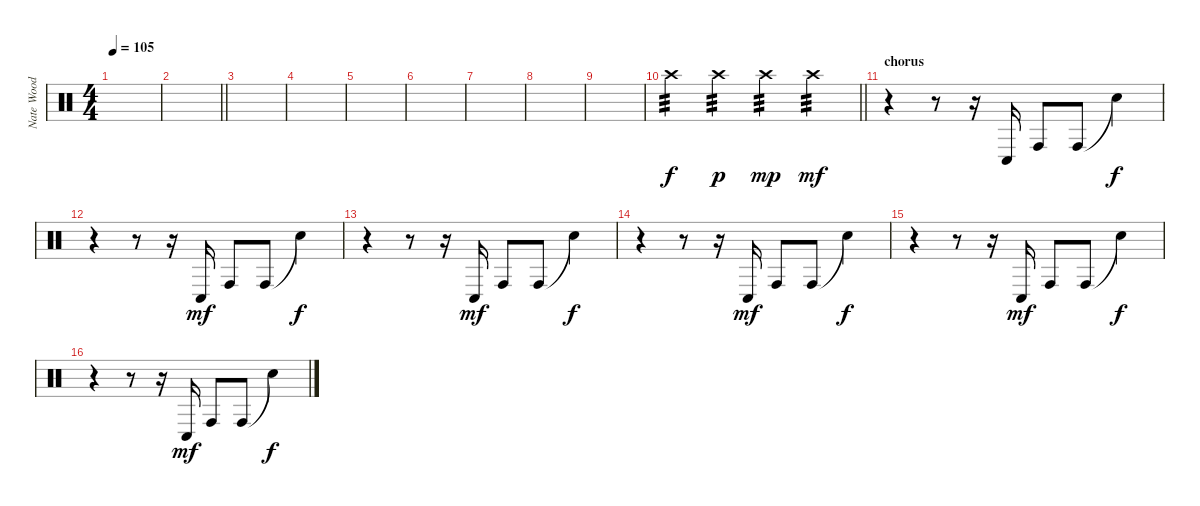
\track ("Nate Wood " "Nate Wood ") {instrument percussion}
\staff {score}
\articulation defaults
\ts (4 4)
\tempo 105
\clef neutral
\ks c
|
\barLineRight lightlight
|
|
|
|
|
|
|
|
\barLineRight lightlight "Crash high (hit)".4{tp 3} "Crash high (hit)".4{tp 3 dy p} "Crash high (hit)".4{tp 3 dy mp} "Crash high (hit)".4{tp 3 dy mf}
|
\section ("" "chorus")
r.4 r.8 r.16 "Conga low (hit)".16 "Conga high (hit)".8 "Conga high (hit)".8 "Snare (hit)"{t}.4{dy f} |
r.4 r.8 r.16 "Conga low (hit)".16{dy mf} "Conga high (hit)".8 "Conga high (hit)".8 "Snare (hit)"{t}.4{dy f} |
r.4 r.8 r.16 "Conga low (hit)".16{dy mf} "Conga high (hit)".8 "Conga high (hit)".8 "Snare (hit)"{t}.4{dy f} |
r.4 r.8 r.16 "Conga low (hit)".16{dy mf} "Conga high (hit)".8 "Conga high (hit)".8 "Snare (hit)"{t}.4{dy f} |
r.4 r.8 r.16 "Conga low (hit)".16{dy mf} "Conga high (hit)".8 "Conga high (hit)".8 "Snare (hit)"{t}.4{dy f} |
r.4 r.8 r.16 "Conga low (hit)".16{dy mf} "Conga high (hit)".8 "Conga high (hit)".8 "Snare (hit)"{t}.4{dy f}
